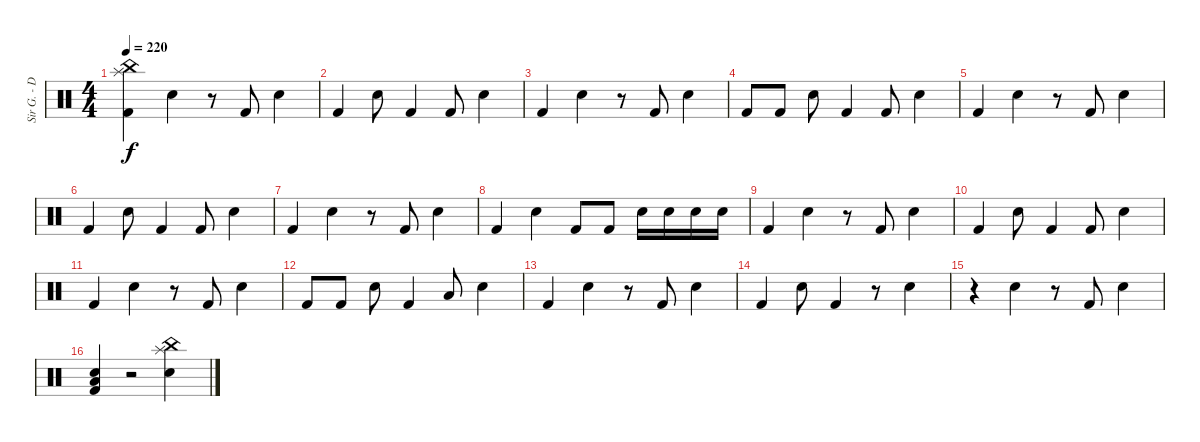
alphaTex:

\track ("Sir G. - Drums" "Sir G. - D") {instrument percussion}
\staff {score}
\articulation defaults
\ts (4 4)
\tempo 220
\clef neutral
\ks c
("China (hit)" "Splash (hit)" "Kick (hit) 2").4{dy f} "Snare (hit) 2".4 r.8 "Kick (hit) 2".8 "Snare (hit) 2".4 |
"Kick (hit) 2".4 "Snare (hit) 2".8 "Kick (hit) 2".4 "Kick (hit) 2".8 "Snare (hit) 2".4 |
"Kick (hit) 2".4 "Snare (hit) 2".4 r.8 "Kick (hit) 2".8 "Snare (hit) 2".4 |
"Kick (hit) 2".8 "Kick (hit) 2".8 "Snare (hit) 2".8 "Kick (hit) 2".4 "Kick (hit) 2".8 "Snare (hit) 2".4 |
"Kick (hit) 2".4 "Snare (hit) 2".4 r.8 "Kick (hit) 2".8 "Snare (hit) 2".4 |
"Kick (hit) 2".4 "Snare (hit) 2".8 "Kick (hit) 2".4 "Kick (hit) 2".8 "Snare (hit) 2".4 |
"Kick (hit) 2".4 "Snare (hit) 2".4 r.8 "Kick (hit) 2".8 "Snare (hit) 2".4 |
"Kick (hit) 2".4 "Snare (hit) 2".4 "Kick (hit) 2".8 "Kick (hit) 2".8 "Snare (hit) 2".16 "Snare (hit) 2".16 "Snare (hit) 2".16 "Snare (hit) 2".16 |
"Kick (hit) 2".4 "Snare (hit) 2".4 r.8 "Kick (hit) 2".8 "Snare (hit) 2".4 |
"Kick (hit) 2".4 "Snare (hit) 2".8 "Kick (hit) 2".4 "Kick (hit) 2".8 "Snare (hit) 2".4 |
"Kick (hit) 2".4 "Snare (hit) 2".4 r.8 "Kick (hit) 2".8 "Snare (hit) 2".4 |
"Kick (hit) 2".8 "Kick (hit) 2".8 "Snare (hit) 2".8 "Kick (hit) 2".4 "Low Floor Tom (hit)".8 "Snare (hit) 2".4 |
"Kick (hit) 2".4 "Snare (hit) 2".4 r.8 "Kick (hit) 2".8 "Snare (hit) 2".4 |
"Kick (hit) 2".4 "Snare (hit) 2".8 "Kick (hit) 2".4 r.8 "Snare (hit) 2".4 |
r.4 "Snare (hit) 2".4 r.8 "Kick (hit) 2".8 "Snare (hit) 2".4 |
("Low Floor Tom (hit)" "Snare (hit) 2" "Kick (hit) 2").4 r.2 ("China (hit)" "Splash (hit)" "Snare (hit) 2").4
